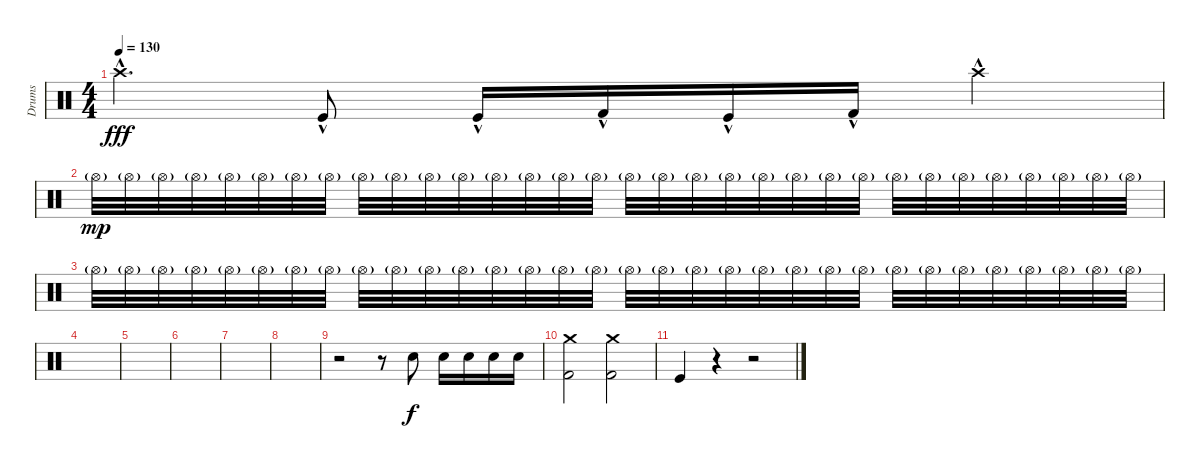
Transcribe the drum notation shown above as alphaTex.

\track ("Drums" "Drums") {instrument percussion}
\staff {score}
\articulation defaults
\ts (4 4)
\tempo 130
\clef neutral
\ks c "Crash high (hit)"{hac}.4{d dy fff volume 16} "Kick (hit)"{hac}.8 "Kick (hit)"{hac}.16 "Kick (hit) 2"{hac}.16 "Kick (hit)"{hac}.16 "Kick (hit) 2"{hac}.16 "Crash high (hit)"{hac}.4
|
"Hi-Hat (open)"{g}.32{dy mp} "Hi-Hat (open)"{g}.32{volume 12} "Hi-Hat (open)"{g}.32 "Hi-Hat (open)"{g}.32 "Hi-Hat (open)"{g}.32 "Hi-Hat (open)"{g}.32 "Hi-Hat (open)"{g}.32 "Hi-Hat (open)"{g}.32 "Hi-Hat (open)"{g}.32 "Hi-Hat (open)"{g}.32 "Hi-Hat (open)"{g}.32 "Hi-Hat (open)"{g}.32 "Hi-Hat (open)"{g}.32 "Hi-Hat (open)"{g}.32 "Hi-Hat (open)"{g}.32 "Hi-Hat (open)"{g}.32 "Hi-Hat (open)"{g}.32 "Hi-Hat (open)"{g}.32 "Hi-Hat (open)"{g}.32 "Hi-Hat (open)"{g}.32 "Hi-Hat (open)"{g}.32 "Hi-Hat (open)"{g}.32 "Hi-Hat (open)"{g}.32 "Hi-Hat (open)"{g}.32 "Hi-Hat (open)"{g}.32 "Hi-Hat (open)"{g}.32 "Hi-Hat (open)"{g}.32 "Hi-Hat (open)"{g}.32 "Hi-Hat (open)"{g}.32 "Hi-Hat (open)"{g}.32 "Hi-Hat (open)"{g}.32 "Hi-Hat (open)"{g}.32 |
"Hi-Hat (open)"{g}.32 "Hi-Hat (open)"{g}.32 "Hi-Hat (open)"{g}.32 "Hi-Hat (open)"{g}.32 "Hi-Hat (open)"{g}.32 "Hi-Hat (open)"{g}.32 "Hi-Hat (open)"{g}.32 "Hi-Hat (open)"{g}.32 "Hi-Hat (open)"{g}.32 "Hi-Hat (open)"{g}.32 "Hi-Hat (open)"{g}.32 "Hi-Hat (open)"{g}.32 "Hi-Hat (open)"{g}.32 "Hi-Hat (open)"{g}.32 "Hi-Hat (open)"{g}.32 "Hi-Hat (open)"{g}.32 "Hi-Hat (open)"{g}.32{volume 4} "Hi-Hat (open)"{g}.32 "Hi-Hat (open)"{g}.32 "Hi-Hat (open)"{g}.32 "Hi-Hat (open)"{g}.32 "Hi-Hat (open)"{g}.32 "Hi-Hat (open)"{g}.32 "Hi-Hat (open)"{g}.32 "Hi-Hat (open)"{g}.32 "Hi-Hat (open)"{g}.32 "Hi-Hat (open)"{g}.32 "Hi-Hat (open)"{g}.32 "Hi-Hat (open)"{g}.32 "Hi-Hat (open)"{g}.32 "Hi-Hat (open)"{g}.32 "Hi-Hat (open)"{g}.32 |
|
|
|
|
|
r.2 r.8 "Snare (hit) 2".8{dy f volume 12} "Snare (hit) 2".16 "Snare (hit) 2".16 "Snare (hit) 2".16 "Snare (hit) 2".16 |
("Crash medium (hit)" "Kick (hit) 2").2 ("Crash medium (hit)" "Kick (hit) 2").2 |
"Kick (hit)".4 r.4 r.2
